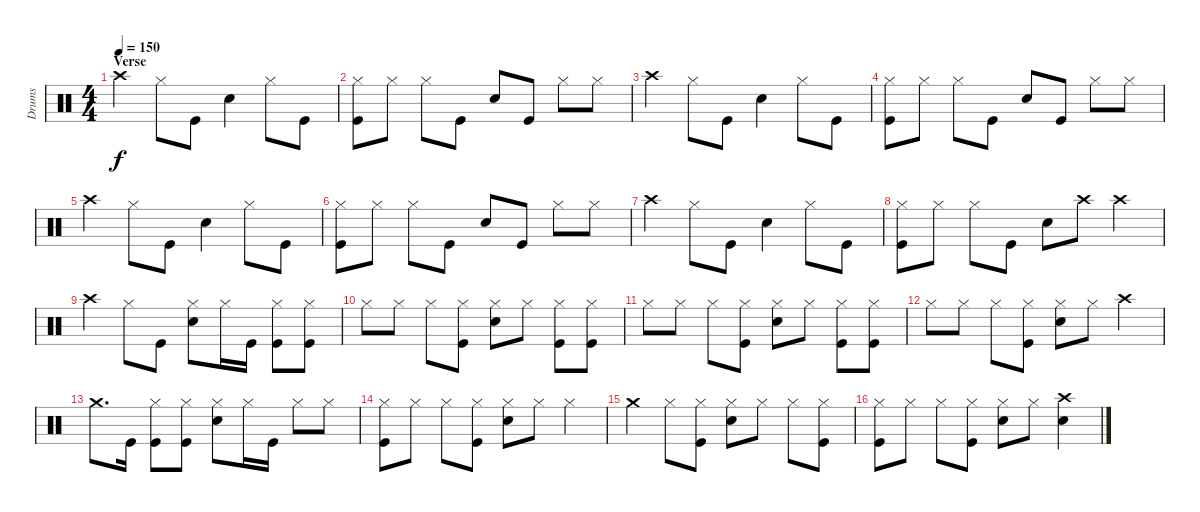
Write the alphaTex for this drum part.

\track ("Drums" "Drums") {instrument percussion}
\staff {score}
\articulation defaults
\ts (4 4)
\section ("" "Verse")
\tempo 150
\clef neutral
\ks c "Crash high (hit)".4{dy f} "Hi-Hat (closed)".8 "Kick (hit)".8 "Snare (hit) 2".4 "Hi-Hat (closed)".8 "Kick (hit)".8
|
("Hi-Hat (closed)" "Kick (hit)").8 "Hi-Hat (closed)".8 "Hi-Hat (closed)".8 "Kick (hit)".8 "Snare (hit) 2".8 "Kick (hit)".8 "Hi-Hat (closed)".8 "Hi-Hat (closed)".8 |
"Crash high (hit)".4 "Hi-Hat (closed)".8 "Kick (hit)".8 "Snare (hit) 2".4 "Hi-Hat (closed)".8 "Kick (hit)".8 |
("Hi-Hat (closed)" "Kick (hit)").8 "Hi-Hat (closed)".8 "Hi-Hat (closed)".8 "Kick (hit)".8 "Snare (hit) 2".8 "Kick (hit)".8 "Hi-Hat (closed)".8 "Hi-Hat (closed)".8 |
"Crash high (hit)".4 "Hi-Hat (closed)".8 "Kick (hit)".8 "Snare (hit) 2".4 "Hi-Hat (closed)".8 "Kick (hit)".8 |
("Hi-Hat (closed)" "Kick (hit)").8 "Hi-Hat (closed)".8 "Hi-Hat (closed)".8 "Kick (hit)".8 "Snare (hit) 2".8 "Kick (hit)".8 "Hi-Hat (closed)".8 "Hi-Hat (closed)".8 |
"Crash high (hit)".4 "Hi-Hat (closed)".8 "Kick (hit)".8 "Snare (hit) 2".4 "Hi-Hat (closed)".8 "Kick (hit)".8 |
("Hi-Hat (closed)" "Kick (hit)").8 "Hi-Hat (closed)".8 "Hi-Hat (closed)".8 "Kick (hit)".8 "Snare (hit) 2".8 "Crash high (hit)".8 "Crash high (hit)".4 |
"Crash high (hit)".4 "Hi-Hat (closed)".8 "Kick (hit)".8 ("Hi-Hat (closed)" "Snare (hit) 2").8 "Hi-Hat (closed)".16 "Kick (hit)".16 ("Hi-Hat (closed)" "Kick (hit)").8 ("Hi-Hat (closed)" "Kick (hit)").8 |
"Hi-Hat (closed)".8 "Hi-Hat (closed)".8 "Hi-Hat (closed)".8 ("Hi-Hat (closed)" "Kick (hit)").8 ("Hi-Hat (closed)" "Snare (hit) 2").8 "Hi-Hat (closed)".8 ("Hi-Hat (closed)" "Kick (hit)").8 ("Hi-Hat (closed)" "Kick (hit)").8 |
"Hi-Hat (closed)".8 "Hi-Hat (closed)".8 "Hi-Hat (closed)".8 ("Hi-Hat (closed)" "Kick (hit)").8 ("Hi-Hat (closed)" "Snare (hit) 2").8 "Hi-Hat (closed)".8 ("Hi-Hat (closed)" "Kick (hit)").8 ("Hi-Hat (closed)" "Kick (hit)").8 |
"Hi-Hat (closed)".8 "Hi-Hat (closed)".8 "Hi-Hat (closed)".8 ("Hi-Hat (closed)" "Kick (hit)").8 ("Hi-Hat (closed)" "Snare (hit) 2").8 "Hi-Hat (closed)".8 "Crash high (hit)".4 |
"Crash medium (hit)".8{d} "Kick (hit)".16 ("Hi-Hat (closed)" "Kick (hit)").8 ("Hi-Hat (closed)" "Kick (hit)").8 ("Hi-Hat (closed)" "Snare (hit) 2").8 "Hi-Hat (closed)".16 "Kick (hit)".16 "Hi-Hat (closed)".8 "Hi-Hat (closed)".8 |
("Hi-Hat (closed)" "Kick (hit)").8 "Hi-Hat (closed)".8 "Hi-Hat (closed)".8 ("Hi-Hat (closed)" "Kick (hit)").8 ("Hi-Hat (closed)" "Snare (hit) 2").8 "Hi-Hat (closed)".8 "Hi-Hat (closed)".4 |
"Crash medium (hit)".4 "Hi-Hat (closed)".8 ("Hi-Hat (closed)" "Kick (hit)").8 ("Hi-Hat (closed)" "Snare (hit) 2").8 "Hi-Hat (closed)".8 "Hi-Hat (closed)".8 ("Hi-Hat (closed)" "Kick (hit)").8 |
("Hi-Hat (closed)" "Kick (hit)").8 "Hi-Hat (closed)".8 "Hi-Hat (closed)".8 ("Hi-Hat (closed)" "Kick (hit)").8 ("Hi-Hat (closed)" "Snare (hit) 2").8 "Hi-Hat (closed)".8 ("Crash high (hit)" "Snare (hit) 2").4
